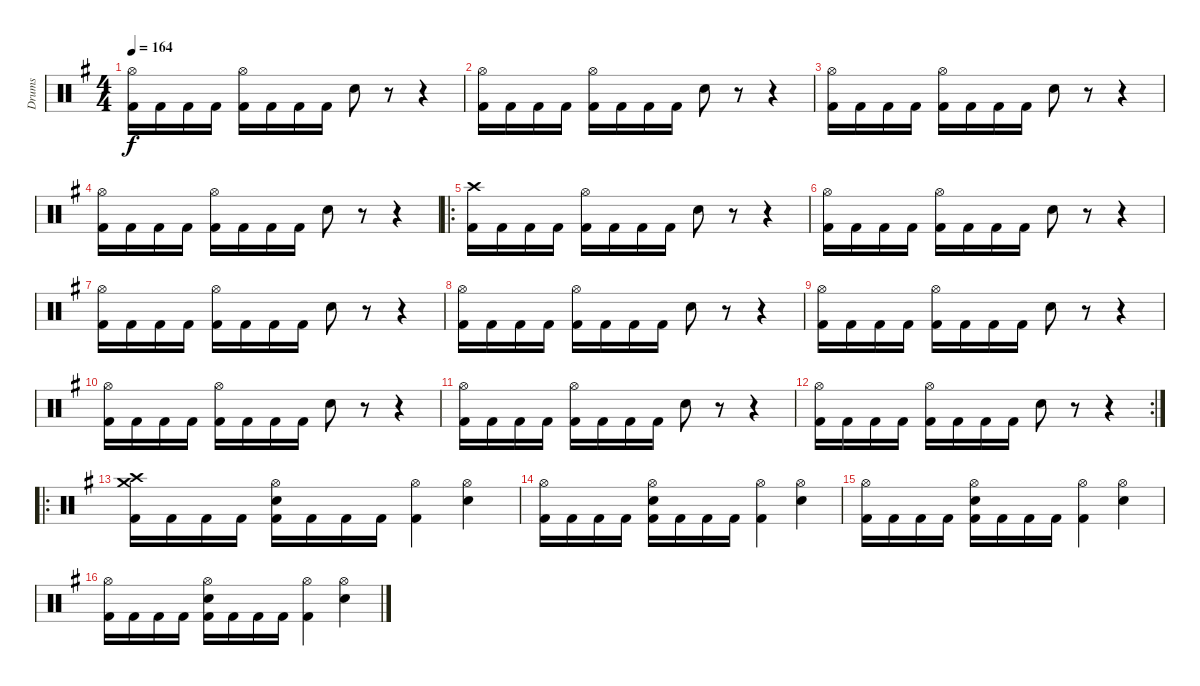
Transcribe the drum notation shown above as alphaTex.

\track ("Drums" "Drums") {instrument percussion}
\staff
\articulation defaults
\ts (4 4)
\tempo 164
\clef neutral
\ks g
("Hi-Hat (open)" "Kick (hit) 2").16{dy f} "Kick (hit) 2".16 "Kick (hit) 2".16 "Kick (hit) 2".16 ("Hi-Hat (open)" "Kick (hit) 2").16 "Kick (hit) 2".16 "Kick (hit) 2".16 "Kick (hit) 2".16 "Snare (hit) 2".8 r.8 r.4 |
("Hi-Hat (open)" "Kick (hit) 2").16 "Kick (hit) 2".16 "Kick (hit) 2".16 "Kick (hit) 2".16 ("Hi-Hat (open)" "Kick (hit) 2").16 "Kick (hit) 2".16 "Kick (hit) 2".16 "Kick (hit) 2".16 "Snare (hit) 2".8 r.8 r.4 |
("Hi-Hat (open)" "Kick (hit) 2").16 "Kick (hit) 2".16 "Kick (hit) 2".16 "Kick (hit) 2".16 ("Hi-Hat (open)" "Kick (hit) 2").16 "Kick (hit) 2".16 "Kick (hit) 2".16 "Kick (hit) 2".16 "Snare (hit) 2".8 r.8 r.4 |
("Hi-Hat (open)" "Kick (hit) 2").16 "Kick (hit) 2".16 "Kick (hit) 2".16 "Kick (hit) 2".16 ("Hi-Hat (open)" "Kick (hit) 2").16 "Kick (hit) 2".16 "Kick (hit) 2".16 "Kick (hit) 2".16 "Snare (hit) 2".8 r.8 r.4 |
\ro
("Crash high (hit)" "Kick (hit) 2").16 "Kick (hit) 2".16 "Kick (hit) 2".16 "Kick (hit) 2".16 ("Hi-Hat (open)" "Kick (hit) 2").16 "Kick (hit) 2".16 "Kick (hit) 2".16 "Kick (hit) 2".16 "Snare (hit) 2".8 r.8 r.4 |
("Hi-Hat (open)" "Kick (hit) 2").16 "Kick (hit) 2".16 "Kick (hit) 2".16 "Kick (hit) 2".16 ("Hi-Hat (open)" "Kick (hit) 2").16 "Kick (hit) 2".16 "Kick (hit) 2".16 "Kick (hit) 2".16 "Snare (hit) 2".8 r.8 r.4 |
("Hi-Hat (open)" "Kick (hit) 2").16 "Kick (hit) 2".16 "Kick (hit) 2".16 "Kick (hit) 2".16 ("Hi-Hat (open)" "Kick (hit) 2").16 "Kick (hit) 2".16 "Kick (hit) 2".16 "Kick (hit) 2".16 "Snare (hit) 2".8 r.8 r.4 |
("Hi-Hat (open)" "Kick (hit) 2").16 "Kick (hit) 2".16 "Kick (hit) 2".16 "Kick (hit) 2".16 ("Hi-Hat (open)" "Kick (hit) 2").16 "Kick (hit) 2".16 "Kick (hit) 2".16 "Kick (hit) 2".16 "Snare (hit) 2".8 r.8 r.4 |
("Hi-Hat (open)" "Kick (hit) 2").16 "Kick (hit) 2".16 "Kick (hit) 2".16 "Kick (hit) 2".16 ("Hi-Hat (open)" "Kick (hit) 2").16 "Kick (hit) 2".16 "Kick (hit) 2".16 "Kick (hit) 2".16 "Snare (hit) 2".8 r.8 r.4 |
("Hi-Hat (open)" "Kick (hit) 2").16 "Kick (hit) 2".16 "Kick (hit) 2".16 "Kick (hit) 2".16 ("Hi-Hat (open)" "Kick (hit) 2").16 "Kick (hit) 2".16 "Kick (hit) 2".16 "Kick (hit) 2".16 "Snare (hit) 2".8 r.8 r.4 |
("Hi-Hat (open)" "Kick (hit) 2").16 "Kick (hit) 2".16 "Kick (hit) 2".16 "Kick (hit) 2".16 ("Hi-Hat (open)" "Kick (hit) 2").16 "Kick (hit) 2".16 "Kick (hit) 2".16 "Kick (hit) 2".16 "Snare (hit) 2".8 r.8 r.4 |
\rc 2
("Hi-Hat (open)" "Kick (hit) 2").16 "Kick (hit) 2".16 "Kick (hit) 2".16 "Kick (hit) 2".16 ("Hi-Hat (open)" "Kick (hit) 2").16 "Kick (hit) 2".16 "Kick (hit) 2".16 "Kick (hit) 2".16 "Snare (hit) 2".8 r.8 r.4 |
\ro
("Crash high (hit)" "Crash medium (hit)" "Kick (hit) 2").16 "Kick (hit) 2".16 "Kick (hit) 2".16 "Kick (hit) 2".16 ("Hi-Hat (open)" "Snare (hit) 2" "Kick (hit) 2").16 "Kick (hit) 2".16 "Kick (hit) 2".16 "Kick (hit) 2".16 ("Hi-Hat (open)" "Kick (hit) 2").4 ("Hi-Hat (open)" "Snare (hit) 2").4 |
("Hi-Hat (open)" "Kick (hit) 2").16 "Kick (hit) 2".16 "Kick (hit) 2".16 "Kick (hit) 2".16 ("Hi-Hat (open)" "Snare (hit) 2" "Kick (hit) 2").16 "Kick (hit) 2".16 "Kick (hit) 2".16 "Kick (hit) 2".16 ("Hi-Hat (open)" "Kick (hit) 2").4 ("Hi-Hat (open)" "Snare (hit) 2").4 |
("Hi-Hat (open)" "Kick (hit) 2").16 "Kick (hit) 2".16 "Kick (hit) 2".16 "Kick (hit) 2".16 ("Hi-Hat (open)" "Snare (hit) 2" "Kick (hit) 2").16 "Kick (hit) 2".16 "Kick (hit) 2".16 "Kick (hit) 2".16 ("Hi-Hat (open)" "Kick (hit) 2").4 ("Hi-Hat (open)" "Snare (hit) 2").4 |
("Hi-Hat (open)" "Kick (hit) 2").16 "Kick (hit) 2".16 "Kick (hit) 2".16 "Kick (hit) 2".16 ("Hi-Hat (open)" "Snare (hit) 2" "Kick (hit) 2").16 "Kick (hit) 2".16 "Kick (hit) 2".16 "Kick (hit) 2".16 ("Hi-Hat (open)" "Kick (hit) 2").4 ("Hi-Hat (open)" "Snare (hit) 2").4
